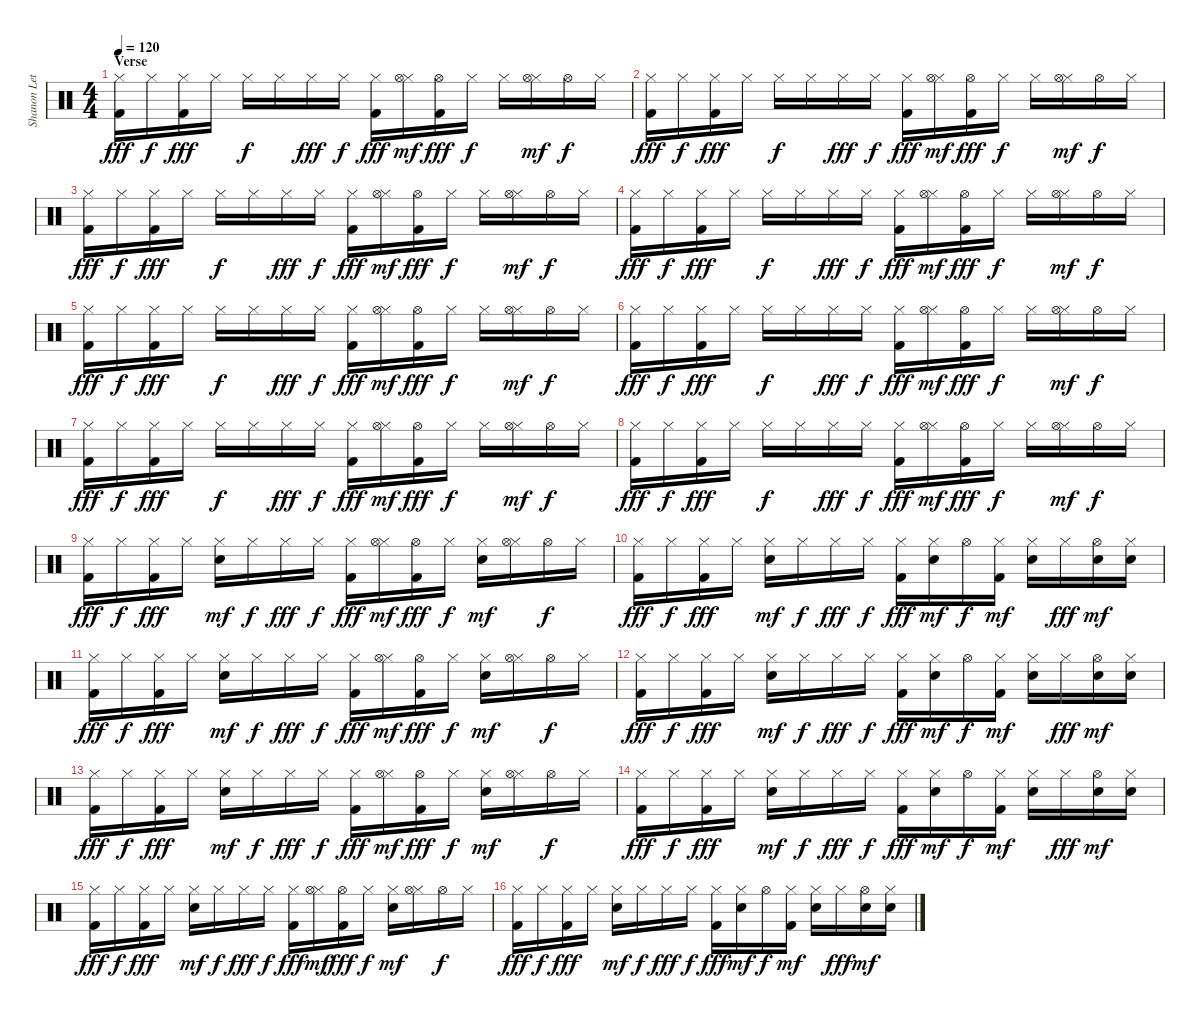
\track ("Shanon Leto(Drums)" "Shanon Let") {instrument percussion}
\staff {score}
\articulation defaults
\ts (4 4)
\section ("" "Verse")
\tempo 120
\clef neutral
\ks c
("Hi-Hat (closed)" "Kick (hit) 2").16{dy fff} "Hi-Hat (closed)".16{dy f} ("Hi-Hat (closed)" "Kick (hit) 2").16{dy fff} "Hi-Hat (closed)".16 "Hi-Hat (closed)".16{dy f} "Hi-Hat (closed)".16 "Hi-Hat (closed)".16{dy fff} "Hi-Hat (closed)".16{dy f} ("Hi-Hat (closed)" "Kick (hit) 2").16{dy fff} ("Hi-Hat (closed)" "Hi-Hat (open)").16{dy mf} ("Hi-Hat (open)" "Kick (hit) 2").16{dy fff} "Hi-Hat (closed)".16{dy f} "Hi-Hat (closed)".16 ("Hi-Hat (closed)" "Hi-Hat (open)").16{dy mf} "Hi-Hat (open)".16{dy f} "Hi-Hat (closed)".16 |
("Hi-Hat (closed)" "Kick (hit) 2").16{dy fff} "Hi-Hat (closed)".16{dy f} ("Hi-Hat (closed)" "Kick (hit) 2").16{dy fff} "Hi-Hat (closed)".16 "Hi-Hat (closed)".16{dy f} "Hi-Hat (closed)".16 "Hi-Hat (closed)".16{dy fff} "Hi-Hat (closed)".16{dy f} ("Hi-Hat (closed)" "Kick (hit) 2").16{dy fff} ("Hi-Hat (closed)" "Hi-Hat (open)").16{dy mf} ("Hi-Hat (open)" "Kick (hit) 2").16{dy fff} "Hi-Hat (closed)".16{dy f} "Hi-Hat (closed)".16 ("Hi-Hat (closed)" "Hi-Hat (open)").16{dy mf} "Hi-Hat (open)".16{dy f} "Hi-Hat (closed)".16 |
("Hi-Hat (closed)" "Kick (hit) 2").16{dy fff} "Hi-Hat (closed)".16{dy f} ("Hi-Hat (closed)" "Kick (hit) 2").16{dy fff} "Hi-Hat (closed)".16 "Hi-Hat (closed)".16{dy f} "Hi-Hat (closed)".16 "Hi-Hat (closed)".16{dy fff} "Hi-Hat (closed)".16{dy f} ("Hi-Hat (closed)" "Kick (hit) 2").16{dy fff} ("Hi-Hat (closed)" "Hi-Hat (open)").16{dy mf} ("Hi-Hat (open)" "Kick (hit) 2").16{dy fff} "Hi-Hat (closed)".16{dy f} "Hi-Hat (closed)".16 ("Hi-Hat (closed)" "Hi-Hat (open)").16{dy mf} "Hi-Hat (open)".16{dy f} "Hi-Hat (closed)".16 |
("Hi-Hat (closed)" "Kick (hit) 2").16{dy fff} "Hi-Hat (closed)".16{dy f} ("Hi-Hat (closed)" "Kick (hit) 2").16{dy fff} "Hi-Hat (closed)".16 "Hi-Hat (closed)".16{dy f} "Hi-Hat (closed)".16 "Hi-Hat (closed)".16{dy fff} "Hi-Hat (closed)".16{dy f} ("Hi-Hat (closed)" "Kick (hit) 2").16{dy fff} ("Hi-Hat (closed)" "Hi-Hat (open)").16{dy mf} ("Hi-Hat (open)" "Kick (hit) 2").16{dy fff} "Hi-Hat (closed)".16{dy f} "Hi-Hat (closed)".16 ("Hi-Hat (closed)" "Hi-Hat (open)").16{dy mf} "Hi-Hat (open)".16{dy f} "Hi-Hat (closed)".16 |
("Hi-Hat (closed)" "Kick (hit) 2").16{dy fff} "Hi-Hat (closed)".16{dy f} ("Hi-Hat (closed)" "Kick (hit) 2").16{dy fff} "Hi-Hat (closed)".16 "Hi-Hat (closed)".16{dy f} "Hi-Hat (closed)".16 "Hi-Hat (closed)".16{dy fff} "Hi-Hat (closed)".16{dy f} ("Hi-Hat (closed)" "Kick (hit) 2").16{dy fff} ("Hi-Hat (closed)" "Hi-Hat (open)").16{dy mf} ("Hi-Hat (open)" "Kick (hit) 2").16{dy fff} "Hi-Hat (closed)".16{dy f} "Hi-Hat (closed)".16 ("Hi-Hat (closed)" "Hi-Hat (open)").16{dy mf} "Hi-Hat (open)".16{dy f} "Hi-Hat (closed)".16 |
("Hi-Hat (closed)" "Kick (hit) 2").16{dy fff} "Hi-Hat (closed)".16{dy f} ("Hi-Hat (closed)" "Kick (hit) 2").16{dy fff} "Hi-Hat (closed)".16 "Hi-Hat (closed)".16{dy f} "Hi-Hat (closed)".16 "Hi-Hat (closed)".16{dy fff} "Hi-Hat (closed)".16{dy f} ("Hi-Hat (closed)" "Kick (hit) 2").16{dy fff} ("Hi-Hat (closed)" "Hi-Hat (open)").16{dy mf} ("Hi-Hat (open)" "Kick (hit) 2").16{dy fff} "Hi-Hat (closed)".16{dy f} "Hi-Hat (closed)".16 ("Hi-Hat (closed)" "Hi-Hat (open)").16{dy mf} "Hi-Hat (open)".16{dy f} "Hi-Hat (closed)".16 |
("Hi-Hat (closed)" "Kick (hit) 2").16{dy fff} "Hi-Hat (closed)".16{dy f} ("Hi-Hat (closed)" "Kick (hit) 2").16{dy fff} "Hi-Hat (closed)".16 "Hi-Hat (closed)".16{dy f} "Hi-Hat (closed)".16 "Hi-Hat (closed)".16{dy fff} "Hi-Hat (closed)".16{dy f} ("Hi-Hat (closed)" "Kick (hit) 2").16{dy fff} ("Hi-Hat (closed)" "Hi-Hat (open)").16{dy mf} ("Hi-Hat (open)" "Kick (hit) 2").16{dy fff} "Hi-Hat (closed)".16{dy f} "Hi-Hat (closed)".16 ("Hi-Hat (closed)" "Hi-Hat (open)").16{dy mf} "Hi-Hat (open)".16{dy f} "Hi-Hat (closed)".16 |
("Hi-Hat (closed)" "Kick (hit) 2").16{dy fff} "Hi-Hat (closed)".16{dy f} ("Hi-Hat (closed)" "Kick (hit) 2").16{dy fff} "Hi-Hat (closed)".16 "Hi-Hat (closed)".16{dy f} "Hi-Hat (closed)".16 "Hi-Hat (closed)".16{dy fff} "Hi-Hat (closed)".16{dy f} ("Hi-Hat (closed)" "Kick (hit) 2").16{dy fff} ("Hi-Hat (closed)" "Hi-Hat (open)").16{dy mf} ("Hi-Hat (open)" "Kick (hit) 2").16{dy fff} "Hi-Hat (closed)".16{dy f} "Hi-Hat (closed)".16 ("Hi-Hat (closed)" "Hi-Hat (open)").16{dy mf} "Hi-Hat (open)".16{dy f} "Hi-Hat (closed)".16 |
("Hi-Hat (closed)" "Kick (hit) 2").16{dy fff} "Hi-Hat (closed)".16{dy f} ("Hi-Hat (closed)" "Kick (hit) 2").16{dy fff} "Hi-Hat (closed)".16 ("Hi-Hat (closed)" "Electric Snare (hit)").16{dy mf} "Hi-Hat (closed)".16{dy f} "Hi-Hat (closed)".16{dy fff} "Hi-Hat (closed)".16{dy f} ("Hi-Hat (closed)" "Kick (hit) 2").16{dy fff} ("Hi-Hat (closed)" "Hi-Hat (open)").16{dy mf} ("Hi-Hat (open)" "Kick (hit) 2").16{dy fff} "Hi-Hat (closed)".16{dy f} ("Hi-Hat (closed)" "Electric Snare (hit)").16{dy mf} ("Hi-Hat (closed)" "Hi-Hat (open)").16 "Hi-Hat (open)".16{dy f} "Hi-Hat (closed)".16 |
("Hi-Hat (closed)" "Kick (hit) 2").16{dy fff} "Hi-Hat (closed)".16{dy f} ("Hi-Hat (closed)" "Kick (hit) 2").16{dy fff} "Hi-Hat (closed)".16 ("Hi-Hat (closed)" "Electric Snare (hit)").16{dy mf} "Hi-Hat (closed)".16{dy f} "Hi-Hat (closed)".16{dy fff} "Hi-Hat (closed)".16{dy f} ("Hi-Hat (closed)" "Kick (hit) 2").16{dy fff} ("Hi-Hat (closed)" "Electric Snare (hit)").16{dy mf} "Hi-Hat (open)".16{dy f} ("Hi-Hat (closed)" "Kick (hit) 2").16{dy mf} ("Hi-Hat (closed)" "Electric Snare (hit)").16 "Hi-Hat (closed)".16{dy fff} ("Hi-Hat (open)" "Electric Snare (hit)").16{dy mf} ("Hi-Hat (closed)" "Electric Snare (hit)").16 |
("Hi-Hat (closed)" "Kick (hit) 2").16{dy fff} "Hi-Hat (closed)".16{dy f} ("Hi-Hat (closed)" "Kick (hit) 2").16{dy fff} "Hi-Hat (closed)".16 ("Hi-Hat (closed)" "Electric Snare (hit)").16{dy mf} "Hi-Hat (closed)".16{dy f} "Hi-Hat (closed)".16{dy fff} "Hi-Hat (closed)".16{dy f} ("Hi-Hat (closed)" "Kick (hit) 2").16{dy fff} ("Hi-Hat (closed)" "Hi-Hat (open)").16{dy mf} ("Hi-Hat (open)" "Kick (hit) 2").16{dy fff} "Hi-Hat (closed)".16{dy f} ("Hi-Hat (closed)" "Electric Snare (hit)").16{dy mf} ("Hi-Hat (closed)" "Hi-Hat (open)").16 "Hi-Hat (open)".16{dy f} "Hi-Hat (closed)".16 |
("Hi-Hat (closed)" "Kick (hit) 2").16{dy fff} "Hi-Hat (closed)".16{dy f} ("Hi-Hat (closed)" "Kick (hit) 2").16{dy fff} "Hi-Hat (closed)".16 ("Hi-Hat (closed)" "Electric Snare (hit)").16{dy mf} "Hi-Hat (closed)".16{dy f} "Hi-Hat (closed)".16{dy fff} "Hi-Hat (closed)".16{dy f} ("Hi-Hat (closed)" "Kick (hit) 2").16{dy fff} ("Hi-Hat (closed)" "Electric Snare (hit)").16{dy mf} "Hi-Hat (open)".16{dy f} ("Hi-Hat (closed)" "Kick (hit) 2").16{dy mf} ("Hi-Hat (closed)" "Electric Snare (hit)").16 "Hi-Hat (closed)".16{dy fff} ("Hi-Hat (open)" "Electric Snare (hit)").16{dy mf} ("Hi-Hat (closed)" "Electric Snare (hit)").16 |
("Hi-Hat (closed)" "Kick (hit) 2").16{dy fff} "Hi-Hat (closed)".16{dy f} ("Hi-Hat (closed)" "Kick (hit) 2").16{dy fff} "Hi-Hat (closed)".16 ("Hi-Hat (closed)" "Electric Snare (hit)").16{dy mf} "Hi-Hat (closed)".16{dy f} "Hi-Hat (closed)".16{dy fff} "Hi-Hat (closed)".16{dy f} ("Hi-Hat (closed)" "Kick (hit) 2").16{dy fff} ("Hi-Hat (closed)" "Hi-Hat (open)").16{dy mf} ("Hi-Hat (open)" "Kick (hit) 2").16{dy fff} "Hi-Hat (closed)".16{dy f} ("Hi-Hat (closed)" "Electric Snare (hit)").16{dy mf} ("Hi-Hat (closed)" "Hi-Hat (open)").16 "Hi-Hat (open)".16{dy f} "Hi-Hat (closed)".16 |
("Hi-Hat (closed)" "Kick (hit) 2").16{dy fff} "Hi-Hat (closed)".16{dy f} ("Hi-Hat (closed)" "Kick (hit) 2").16{dy fff} "Hi-Hat (closed)".16 ("Hi-Hat (closed)" "Electric Snare (hit)").16{dy mf} "Hi-Hat (closed)".16{dy f} "Hi-Hat (closed)".16{dy fff} "Hi-Hat (closed)".16{dy f} ("Hi-Hat (closed)" "Kick (hit) 2").16{dy fff} ("Hi-Hat (closed)" "Electric Snare (hit)").16{dy mf} "Hi-Hat (open)".16{dy f} ("Hi-Hat (closed)" "Kick (hit) 2").16{dy mf} ("Hi-Hat (closed)" "Electric Snare (hit)").16 "Hi-Hat (closed)".16{dy fff} ("Hi-Hat (open)" "Electric Snare (hit)").16{dy mf} ("Hi-Hat (closed)" "Electric Snare (hit)").16 |
("Hi-Hat (closed)" "Kick (hit) 2").16{dy fff} "Hi-Hat (closed)".16{dy f} ("Hi-Hat (closed)" "Kick (hit) 2").16{dy fff} "Hi-Hat (closed)".16 ("Hi-Hat (closed)" "Electric Snare (hit)").16{dy mf} "Hi-Hat (closed)".16{dy f} "Hi-Hat (closed)".16{dy fff} "Hi-Hat (closed)".16{dy f} ("Hi-Hat (closed)" "Kick (hit) 2").16{dy fff} ("Hi-Hat (closed)" "Hi-Hat (open)").16{dy mf} ("Hi-Hat (open)" "Kick (hit) 2").16{dy fff} "Hi-Hat (closed)".16{dy f} ("Hi-Hat (closed)" "Electric Snare (hit)").16{dy mf} ("Hi-Hat (closed)" "Hi-Hat (open)").16 "Hi-Hat (open)".16{dy f} "Hi-Hat (closed)".16 |
("Hi-Hat (closed)" "Kick (hit) 2").16{dy fff} "Hi-Hat (closed)".16{dy f} ("Hi-Hat (closed)" "Kick (hit) 2").16{dy fff} "Hi-Hat (closed)".16 ("Hi-Hat (closed)" "Electric Snare (hit)").16{dy mf} "Hi-Hat (closed)".16{dy f} "Hi-Hat (closed)".16{dy fff} "Hi-Hat (closed)".16{dy f} ("Hi-Hat (closed)" "Kick (hit) 2").16{dy fff} ("Hi-Hat (closed)" "Electric Snare (hit)").16{dy mf} "Hi-Hat (open)".16{dy f} ("Hi-Hat (closed)" "Kick (hit) 2").16{dy mf} ("Hi-Hat (closed)" "Electric Snare (hit)").16 "Hi-Hat (closed)".16{dy fff} ("Hi-Hat (open)" "Electric Snare (hit)").16{dy mf} ("Hi-Hat (closed)" "Electric Snare (hit)").16
